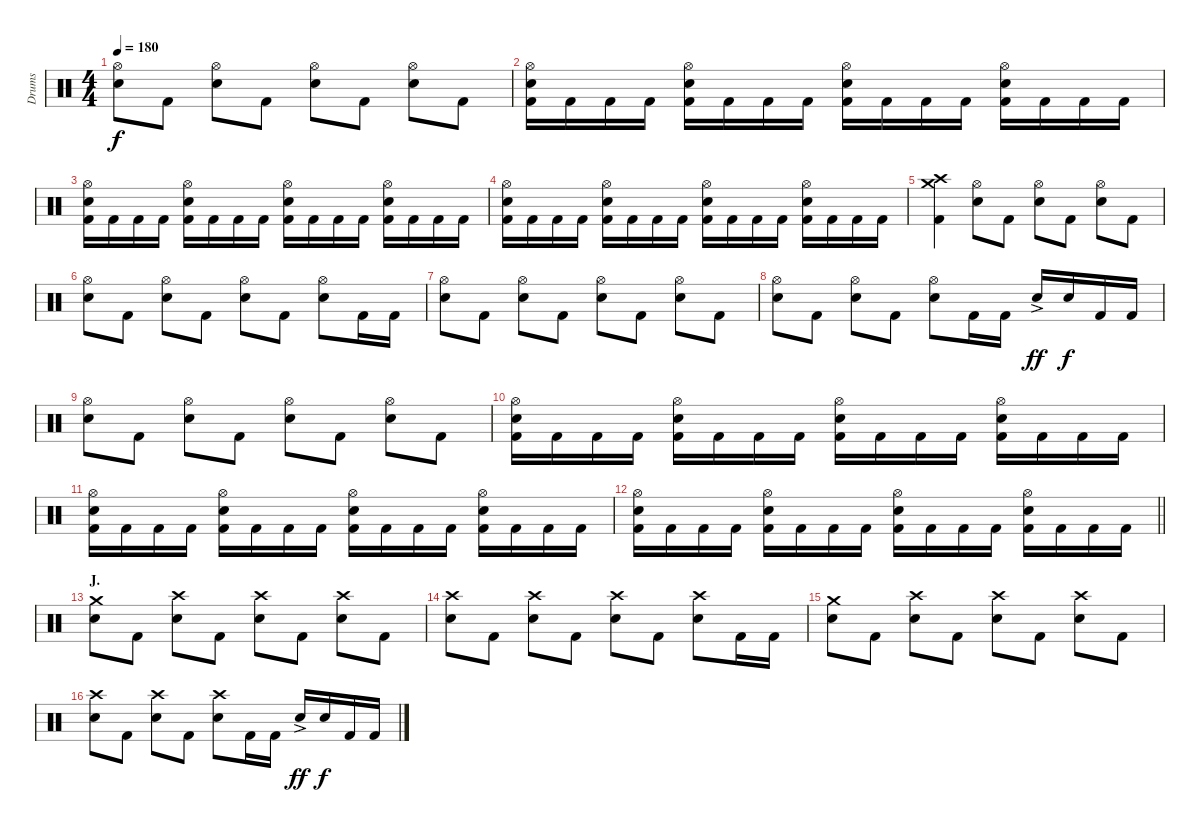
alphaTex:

\track ("Drums" "Drums") {instrument percussion}
\staff {score}
\articulation defaults
\ts (4 4)
\tempo 180
\clef neutral
\ks c
("Hi-Hat (open)" "Electric Snare (hit)").8{dy f} "Kick (hit) 2".8 ("Hi-Hat (open)" "Electric Snare (hit)").8 "Kick (hit) 2".8 ("Hi-Hat (open)" "Electric Snare (hit)").8 "Kick (hit) 2".8 ("Hi-Hat (open)" "Electric Snare (hit)").8 "Kick (hit) 2".8 |
("Hi-Hat (open)" "Electric Snare (hit)" "Kick (hit) 2").16 "Kick (hit) 2".16 "Kick (hit) 2".16 "Kick (hit) 2".16 ("Hi-Hat (open)" "Electric Snare (hit)" "Kick (hit) 2").16 "Kick (hit) 2".16 "Kick (hit) 2".16 "Kick (hit) 2".16 ("Hi-Hat (open)" "Electric Snare (hit)" "Kick (hit) 2").16 "Kick (hit) 2".16 "Kick (hit) 2".16 "Kick (hit) 2".16 ("Hi-Hat (open)" "Electric Snare (hit)" "Kick (hit) 2").16 "Kick (hit) 2".16 "Kick (hit) 2".16 "Kick (hit) 2".16 |
("Hi-Hat (open)" "Electric Snare (hit)" "Kick (hit) 2").16 "Kick (hit) 2".16 "Kick (hit) 2".16 "Kick (hit) 2".16 ("Hi-Hat (open)" "Electric Snare (hit)" "Kick (hit) 2").16 "Kick (hit) 2".16 "Kick (hit) 2".16 "Kick (hit) 2".16 ("Hi-Hat (open)" "Electric Snare (hit)" "Kick (hit) 2").16 "Kick (hit) 2".16 "Kick (hit) 2".16 "Kick (hit) 2".16 ("Hi-Hat (open)" "Electric Snare (hit)" "Kick (hit) 2").16 "Kick (hit) 2".16 "Kick (hit) 2".16 "Kick (hit) 2".16 |
("Hi-Hat (open)" "Electric Snare (hit)" "Kick (hit) 2").16 "Kick (hit) 2".16 "Kick (hit) 2".16 "Kick (hit) 2".16 ("Hi-Hat (open)" "Electric Snare (hit)" "Kick (hit) 2").16 "Kick (hit) 2".16 "Kick (hit) 2".16 "Kick (hit) 2".16 ("Hi-Hat (open)" "Electric Snare (hit)" "Kick (hit) 2").16 "Kick (hit) 2".16 "Kick (hit) 2".16 "Kick (hit) 2".16 ("Hi-Hat (open)" "Electric Snare (hit)" "Kick (hit) 2").16 "Kick (hit) 2".16 "Kick (hit) 2".16 "Kick (hit) 2".16 |
("Crash medium (hit)" "Crash high (hit)" "Kick (hit) 2").4 ("Hi-Hat (open)" "Electric Snare (hit)").8 "Kick (hit) 2".8 ("Hi-Hat (open)" "Electric Snare (hit)").8 "Kick (hit) 2".8 ("Hi-Hat (open)" "Electric Snare (hit)").8 "Kick (hit) 2".8 |
("Hi-Hat (open)" "Electric Snare (hit)").8 "Kick (hit) 2".8 ("Hi-Hat (open)" "Electric Snare (hit)").8 "Kick (hit) 2".8 ("Hi-Hat (open)" "Electric Snare (hit)").8 "Kick (hit) 2".8 ("Hi-Hat (open)" "Electric Snare (hit)").8 "Kick (hit) 2".16 "Kick (hit) 2".16 |
("Hi-Hat (open)" "Electric Snare (hit)").8 "Kick (hit) 2".8 ("Hi-Hat (open)" "Electric Snare (hit)").8 "Kick (hit) 2".8 ("Hi-Hat (open)" "Electric Snare (hit)").8 "Kick (hit) 2".8 ("Hi-Hat (open)" "Electric Snare (hit)").8 "Kick (hit) 2".8 |
("Hi-Hat (open)" "Electric Snare (hit)").8 "Kick (hit) 2".8 ("Hi-Hat (open)" "Electric Snare (hit)").8 "Kick (hit) 2".8 ("Hi-Hat (open)" "Electric Snare (hit)").8 "Kick (hit) 2".16 "Kick (hit) 2".16 "Electric Snare (hit)"{ac}.16{dy ff} "Electric Snare (hit)".16{dy f} "Kick (hit) 2".16 "Kick (hit) 2".16 |
("Hi-Hat (open)" "Electric Snare (hit)").8 "Kick (hit) 2".8 ("Hi-Hat (open)" "Electric Snare (hit)").8 "Kick (hit) 2".8 ("Hi-Hat (open)" "Electric Snare (hit)").8 "Kick (hit) 2".8 ("Hi-Hat (open)" "Electric Snare (hit)").8 "Kick (hit) 2".8 |
("Hi-Hat (open)" "Electric Snare (hit)" "Kick (hit) 2").16 "Kick (hit) 2".16 "Kick (hit) 2".16 "Kick (hit) 2".16 ("Hi-Hat (open)" "Electric Snare (hit)" "Kick (hit) 2").16 "Kick (hit) 2".16 "Kick (hit) 2".16 "Kick (hit) 2".16 ("Hi-Hat (open)" "Electric Snare (hit)" "Kick (hit) 2").16 "Kick (hit) 2".16 "Kick (hit) 2".16 "Kick (hit) 2".16 ("Hi-Hat (open)" "Electric Snare (hit)" "Kick (hit) 2").16 "Kick (hit) 2".16 "Kick (hit) 2".16 "Kick (hit) 2".16 |
("Hi-Hat (open)" "Electric Snare (hit)" "Kick (hit) 2").16 "Kick (hit) 2".16 "Kick (hit) 2".16 "Kick (hit) 2".16 ("Hi-Hat (open)" "Electric Snare (hit)" "Kick (hit) 2").16 "Kick (hit) 2".16 "Kick (hit) 2".16 "Kick (hit) 2".16 ("Hi-Hat (open)" "Electric Snare (hit)" "Kick (hit) 2").16 "Kick (hit) 2".16 "Kick (hit) 2".16 "Kick (hit) 2".16 ("Hi-Hat (open)" "Electric Snare (hit)" "Kick (hit) 2").16 "Kick (hit) 2".16 "Kick (hit) 2".16 "Kick (hit) 2".16 |
\barLineRight lightlight
("Hi-Hat (open)" "Electric Snare (hit)" "Kick (hit) 2").16 "Kick (hit) 2".16 "Kick (hit) 2".16 "Kick (hit) 2".16 ("Hi-Hat (open)" "Electric Snare (hit)" "Kick (hit) 2").16 "Kick (hit) 2".16 "Kick (hit) 2".16 "Kick (hit) 2".16 ("Hi-Hat (open)" "Electric Snare (hit)" "Kick (hit) 2").16 "Kick (hit) 2".16 "Kick (hit) 2".16 "Kick (hit) 2".16 ("Hi-Hat (open)" "Electric Snare (hit)" "Kick (hit) 2").16 "Kick (hit) 2".16 "Kick (hit) 2".16 "Kick (hit) 2".16 |
\section ("" "J.")
("Crash medium (hit)" "Electric Snare (hit)").8 "Kick (hit) 2".8 ("Crash high (hit)" "Electric Snare (hit)").8 "Kick (hit) 2".8 ("Crash high (hit)" "Electric Snare (hit)").8 "Kick (hit) 2".8 ("Crash high (hit)" "Electric Snare (hit)").8 "Kick (hit) 2".8 |
("Crash high (hit)" "Electric Snare (hit)").8 "Kick (hit) 2".8 ("Crash high (hit)" "Electric Snare (hit)").8 "Kick (hit) 2".8 ("Crash high (hit)" "Electric Snare (hit)").8 "Kick (hit) 2".8 ("Crash high (hit)" "Electric Snare (hit)").8 "Kick (hit) 2".16 "Kick (hit) 2".16 |
("Crash medium (hit)" "Electric Snare (hit)").8 "Kick (hit) 2".8 ("Crash high (hit)" "Electric Snare (hit)").8 "Kick (hit) 2".8 ("Crash high (hit)" "Electric Snare (hit)").8 "Kick (hit) 2".8 ("Crash high (hit)" "Electric Snare (hit)").8 "Kick (hit) 2".8 |
("Crash high (hit)" "Electric Snare (hit)").8 "Kick (hit) 2".8 ("Crash high (hit)" "Electric Snare (hit)").8 "Kick (hit) 2".8 ("Crash high (hit)" "Electric Snare (hit)").8 "Kick (hit) 2".16 "Kick (hit) 2".16 "Electric Snare (hit)"{ac}.16{dy ff} "Electric Snare (hit)".16{dy f} "Kick (hit) 2".16 "Kick (hit) 2".16
